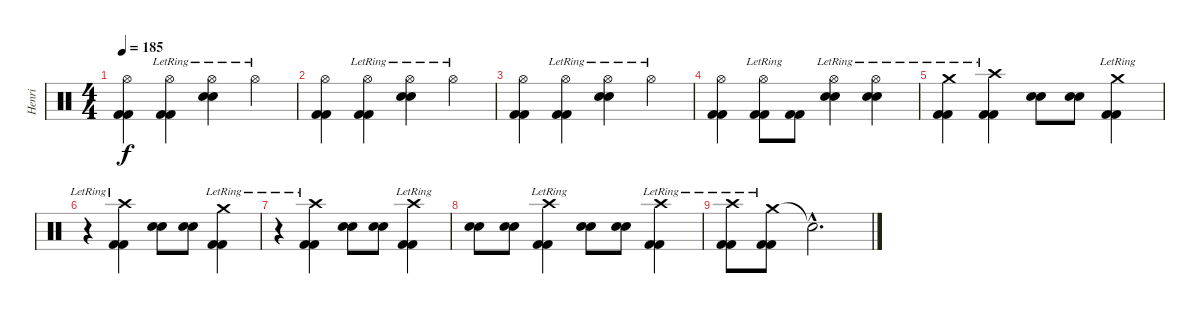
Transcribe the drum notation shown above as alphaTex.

\track ("Henri" "Henri") {instrument percussion}
\staff {score}
\articulation defaults
\ts (4 4)
\tempo 185
\clef neutral
\ks c
("Hi-Hat (open)" "Kick (hit) 2" "Kick (hit) 2").4{dy f} ("Hi-Hat (open)"{lr} "Kick (hit) 2" "Kick (hit) 2").4 ("Hi-Hat (open)"{lr} "Snare (hit) 2" "Snare (hit) 2").4 "Hi-Hat (open)"{lr}.4 |
("Hi-Hat (open)" "Kick (hit) 2" "Kick (hit) 2").4 ("Hi-Hat (open)"{lr} "Kick (hit) 2" "Kick (hit) 2").4 ("Hi-Hat (open)"{lr} "Snare (hit) 2" "Snare (hit) 2").4 "Hi-Hat (open)"{lr}.4 |
("Hi-Hat (open)" "Kick (hit) 2" "Kick (hit) 2").4 ("Hi-Hat (open)"{lr} "Kick (hit) 2" "Kick (hit) 2").4 ("Hi-Hat (open)"{lr} "Snare (hit) 2" "Snare (hit) 2").4 "Hi-Hat (open)"{lr}.4 |
("Hi-Hat (open)" "Kick (hit) 2" "Kick (hit) 2").4 ("Hi-Hat (open)"{lr} "Kick (hit) 2" "Kick (hit) 2").8 ("Kick (hit) 2" "Kick (hit) 2").8 ("Hi-Hat (open)"{lr} "Snare (hit) 2" "Snare (hit) 2").4 ("Hi-Hat (open)"{lr} "Snare (hit) 2" "Snare (hit) 2").4 |
("Crash medium (hit)"{lr} "Kick (hit) 2" "Kick (hit) 2").4 ("Crash high (hit)"{lr} "Kick (hit) 2" "Kick (hit) 2").4 ("Snare (hit) 2" "Snare (hit) 2").8 ("Snare (hit) 2" "Snare (hit) 2").8 ("Crash medium (hit)"{lr} "Kick (hit) 2" "Kick (hit) 2").4 |
r.4 ("Crash high (hit)"{lr} "Kick (hit) 2" "Kick (hit) 2").4 ("Snare (hit) 2" "Snare (hit) 2").8 ("Snare (hit) 2" "Snare (hit) 2").8 ("Crash medium (hit)"{lr} "Kick (hit) 2" "Kick (hit) 2").4 |
r.4 ("Crash high (hit)"{lr} "Kick (hit) 2" "Kick (hit) 2").4 ("Snare (hit) 2" "Snare (hit) 2").8 ("Snare (hit) 2" "Snare (hit) 2").8 ("Crash high (hit)"{lr} "Kick (hit) 2" "Kick (hit) 2").4 |
("Snare (hit) 2" "Snare (hit) 2").8 ("Snare (hit) 2" "Snare (hit) 2").8 ("Crash high (hit)"{lr} "Kick (hit) 2" "Kick (hit) 2").4 ("Snare (hit) 2" "Snare (hit) 2").8 ("Snare (hit) 2" "Snare (hit) 2").8 ("Crash high (hit)"{lr} "Kick (hit) 2" "Kick (hit) 2").4 |
("Crash high (hit)"{lr} "Kick (hit) 2" "Kick (hit) 2").8 ("Crash medium (hit)"{lr} "Kick (hit) 2" "Kick (hit) 2").8 "Snare (hit)"{hac t}.2{d}
